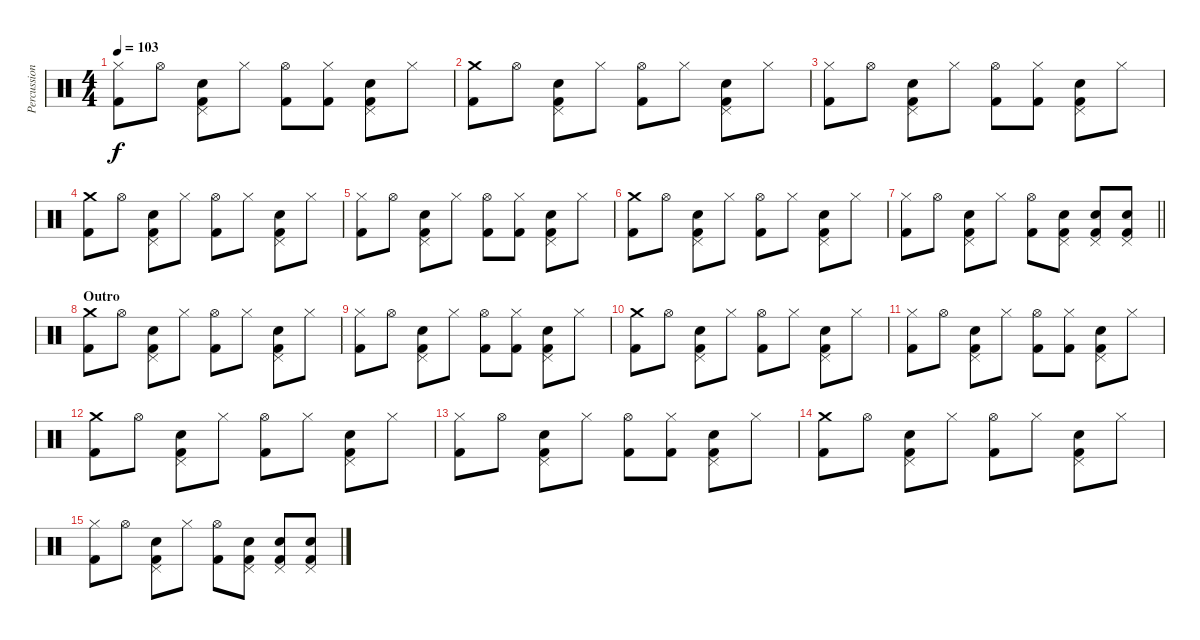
\track ("Percussion: Denny Carmassi" "Percussion") {instrument percussion}
\staff {score}
\articulation defaults
\ts (4 4)
\tempo 103
\clef neutral
\ks c
("Hi-Hat (closed)" "Kick (hit) 2").8{dy f} "Hi-Hat (open)".8 ("Pedal Hi-Hat (hit)" "Snare (hit) 2" "Kick (hit) 2").8 "Hi-Hat (closed)".8 ("Hi-Hat (open)" "Kick (hit) 2").8 ("Hi-Hat (closed)" "Kick (hit) 2").8 ("Pedal Hi-Hat (hit)" "Snare (hit) 2" "Kick (hit) 2").8 "Hi-Hat (closed)".8 |
("Crash medium (hit)" "Kick (hit) 2").8 "Hi-Hat (open)".8 ("Pedal Hi-Hat (hit)" "Snare (hit) 2" "Kick (hit) 2").8 "Hi-Hat (closed)".8 ("Hi-Hat (open)" "Kick (hit) 2").8 "Hi-Hat (closed)".8 ("Pedal Hi-Hat (hit)" "Snare (hit) 2" "Kick (hit) 2").8 "Hi-Hat (closed)".8 |
("Hi-Hat (closed)" "Kick (hit) 2").8 "Hi-Hat (open)".8 ("Pedal Hi-Hat (hit)" "Snare (hit) 2" "Kick (hit) 2").8 "Hi-Hat (closed)".8 ("Hi-Hat (open)" "Kick (hit) 2").8 ("Hi-Hat (closed)" "Kick (hit) 2").8 ("Pedal Hi-Hat (hit)" "Snare (hit) 2" "Kick (hit) 2").8 "Hi-Hat (closed)".8 |
("Crash medium (hit)" "Kick (hit) 2").8 "Hi-Hat (open)".8 ("Pedal Hi-Hat (hit)" "Snare (hit) 2" "Kick (hit) 2").8 "Hi-Hat (closed)".8 ("Hi-Hat (open)" "Kick (hit) 2").8 "Hi-Hat (closed)".8 ("Pedal Hi-Hat (hit)" "Snare (hit) 2" "Kick (hit) 2").8 "Hi-Hat (closed)".8 |
("Hi-Hat (closed)" "Kick (hit) 2").8 "Hi-Hat (open)".8 ("Pedal Hi-Hat (hit)" "Snare (hit) 2" "Kick (hit) 2").8 "Hi-Hat (closed)".8 ("Hi-Hat (open)" "Kick (hit) 2").8 ("Hi-Hat (closed)" "Kick (hit) 2").8 ("Pedal Hi-Hat (hit)" "Snare (hit) 2" "Kick (hit) 2").8 "Hi-Hat (closed)".8 |
("Crash medium (hit)" "Kick (hit) 2").8 "Hi-Hat (open)".8 ("Pedal Hi-Hat (hit)" "Snare (hit) 2" "Kick (hit) 2").8 "Hi-Hat (closed)".8 ("Hi-Hat (open)" "Kick (hit) 2").8 "Hi-Hat (closed)".8 ("Pedal Hi-Hat (hit)" "Snare (hit) 2" "Kick (hit) 2").8 "Hi-Hat (closed)".8 |
\barLineRight lightlight
("Hi-Hat (closed)" "Kick (hit) 2").8 "Hi-Hat (open)".8 ("Pedal Hi-Hat (hit)" "Snare (hit) 2" "Kick (hit) 2").8 "Hi-Hat (closed)".8 ("Hi-Hat (open)" "Kick (hit) 2").8 ("Pedal Hi-Hat (hit)" "Snare (hit) 2" "Kick (hit) 2").8 ("Pedal Hi-Hat (hit)" "Snare (hit) 2" "Kick (hit) 2").8 ("Pedal Hi-Hat (hit)" "Snare (hit) 2" "Kick (hit) 2").8 |
\section ("" "Outro")
("Crash medium (hit)" "Kick (hit) 2").8 "Hi-Hat (open)".8 ("Pedal Hi-Hat (hit)" "Snare (hit) 2" "Kick (hit) 2").8 "Hi-Hat (closed)".8 ("Hi-Hat (open)" "Kick (hit) 2").8 "Hi-Hat (closed)".8 ("Pedal Hi-Hat (hit)" "Snare (hit) 2" "Kick (hit) 2").8 "Hi-Hat (closed)".8 |
("Hi-Hat (closed)" "Kick (hit) 2").8 "Hi-Hat (open)".8 ("Pedal Hi-Hat (hit)" "Snare (hit) 2" "Kick (hit) 2").8 "Hi-Hat (closed)".8 ("Hi-Hat (open)" "Kick (hit) 2").8 ("Hi-Hat (closed)" "Kick (hit) 2").8 ("Pedal Hi-Hat (hit)" "Snare (hit) 2" "Kick (hit) 2").8 "Hi-Hat (closed)".8 |
("Crash medium (hit)" "Kick (hit) 2").8 "Hi-Hat (open)".8 ("Pedal Hi-Hat (hit)" "Snare (hit) 2" "Kick (hit) 2").8 "Hi-Hat (closed)".8 ("Hi-Hat (open)" "Kick (hit) 2").8 "Hi-Hat (closed)".8 ("Pedal Hi-Hat (hit)" "Snare (hit) 2" "Kick (hit) 2").8 "Hi-Hat (closed)".8 |
("Hi-Hat (closed)" "Kick (hit) 2").8 "Hi-Hat (open)".8 ("Pedal Hi-Hat (hit)" "Snare (hit) 2" "Kick (hit) 2").8 "Hi-Hat (closed)".8 ("Hi-Hat (open)" "Kick (hit) 2").8 ("Hi-Hat (closed)" "Kick (hit) 2").8 ("Pedal Hi-Hat (hit)" "Snare (hit) 2" "Kick (hit) 2").8 "Hi-Hat (closed)".8 |
("Crash medium (hit)" "Kick (hit) 2").8 "Hi-Hat (open)".8 ("Pedal Hi-Hat (hit)" "Snare (hit) 2" "Kick (hit) 2").8 "Hi-Hat (closed)".8 ("Hi-Hat (open)" "Kick (hit) 2").8 "Hi-Hat (closed)".8 ("Pedal Hi-Hat (hit)" "Snare (hit) 2" "Kick (hit) 2").8 "Hi-Hat (closed)".8 |
("Hi-Hat (closed)" "Kick (hit) 2").8 "Hi-Hat (open)".8 ("Pedal Hi-Hat (hit)" "Snare (hit) 2" "Kick (hit) 2").8 "Hi-Hat (closed)".8 ("Hi-Hat (open)" "Kick (hit) 2").8 ("Hi-Hat (closed)" "Kick (hit) 2").8 ("Pedal Hi-Hat (hit)" "Snare (hit) 2" "Kick (hit) 2").8 "Hi-Hat (closed)".8 |
("Crash medium (hit)" "Kick (hit) 2").8 "Hi-Hat (open)".8 ("Pedal Hi-Hat (hit)" "Snare (hit) 2" "Kick (hit) 2").8 "Hi-Hat (closed)".8 ("Hi-Hat (open)" "Kick (hit) 2").8 "Hi-Hat (closed)".8 ("Pedal Hi-Hat (hit)" "Snare (hit) 2" "Kick (hit) 2").8 "Hi-Hat (closed)".8 |
("Hi-Hat (closed)" "Kick (hit) 2").8 "Hi-Hat (open)".8 ("Pedal Hi-Hat (hit)" "Snare (hit) 2" "Kick (hit) 2").8 "Hi-Hat (closed)".8 ("Hi-Hat (open)" "Kick (hit) 2").8 ("Pedal Hi-Hat (hit)" "Snare (hit) 2" "Kick (hit) 2").8 ("Pedal Hi-Hat (hit)" "Snare (hit) 2" "Kick (hit) 2").8 ("Pedal Hi-Hat (hit)" "Snare (hit) 2" "Kick (hit) 2").8
